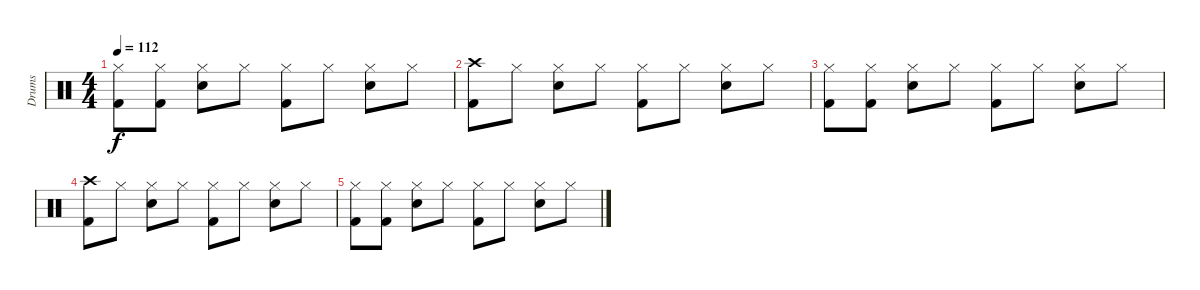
\track ("Drums" "Drums") {instrument percussion}
\staff {score}
\articulation defaults
\ts (4 4)
\tempo 112
\clef neutral
\ks c
("Hi-Hat (closed)" "Kick (hit) 2").8{dy f} ("Hi-Hat (closed)" "Kick (hit) 2").8 ("Hi-Hat (closed)" "Electric Snare (hit)").8 "Hi-Hat (closed)".8 ("Hi-Hat (closed)" "Kick (hit) 2").8 "Hi-Hat (closed)".8 ("Hi-Hat (closed)" "Electric Snare (hit)").8 "Hi-Hat (closed)".8 |
("Crash high (hit)" "Kick (hit) 2").8{volume 0} "Hi-Hat (closed)".8 ("Hi-Hat (closed)" "Electric Snare (hit)").8 "Hi-Hat (closed)".8 ("Hi-Hat (closed)" "Kick (hit) 2").8 "Hi-Hat (closed)".8 ("Hi-Hat (closed)" "Electric Snare (hit)").8 "Hi-Hat (closed)".8 |
("Hi-Hat (closed)" "Kick (hit) 2").8 ("Hi-Hat (closed)" "Kick (hit) 2").8 ("Hi-Hat (closed)" "Electric Snare (hit)").8 "Hi-Hat (closed)".8 ("Hi-Hat (closed)" "Kick (hit) 2").8 "Hi-Hat (closed)".8 ("Hi-Hat (closed)" "Electric Snare (hit)").8 "Hi-Hat (closed)".8 |
("Crash high (hit)" "Kick (hit) 2").8 "Hi-Hat (closed)".8 ("Hi-Hat (closed)" "Electric Snare (hit)").8 "Hi-Hat (closed)".8 ("Hi-Hat (closed)" "Kick (hit) 2").8 "Hi-Hat (closed)".8 ("Hi-Hat (closed)" "Electric Snare (hit)").8 "Hi-Hat (closed)".8 |
("Hi-Hat (closed)" "Kick (hit) 2").8 ("Hi-Hat (closed)" "Kick (hit) 2").8 ("Hi-Hat (closed)" "Electric Snare (hit)").8 "Hi-Hat (closed)".8 ("Hi-Hat (closed)" "Kick (hit) 2").8 "Hi-Hat (closed)".8 ("Hi-Hat (closed)" "Electric Snare (hit)").8 "Hi-Hat (closed)".8
